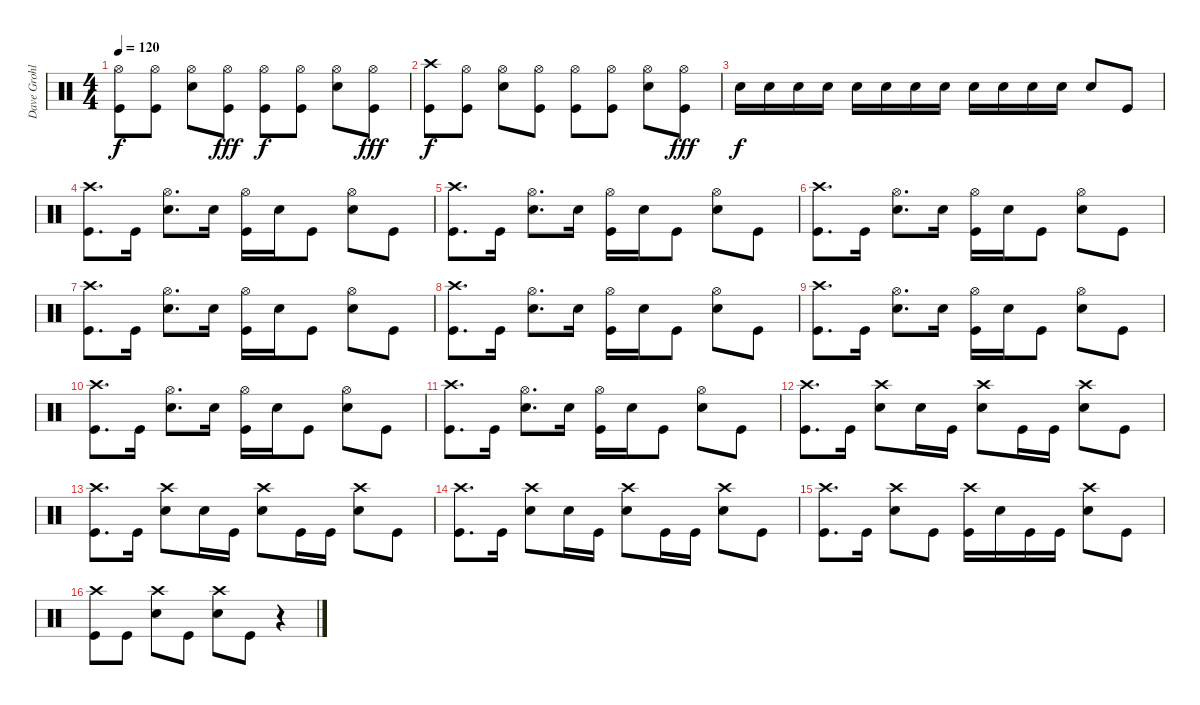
\track ("Dave Grohl - Drums" "Dave Grohl") {instrument percussion}
\staff {score}
\articulation defaults
\ts (4 4)
\tempo 120
\clef neutral
\ks c
("Hi-Hat (open)" "Kick (hit)").8{dy f} ("Hi-Hat (open)" "Kick (hit)").8 ("Hi-Hat (open)" "Snare (hit) 2").8 ("Hi-Hat (open)" "Kick (hit)").8{dy fff} ("Hi-Hat (open)" "Kick (hit)").8{dy f} ("Hi-Hat (open)" "Kick (hit)").8 ("Hi-Hat (open)" "Snare (hit) 2").8 ("Hi-Hat (open)" "Kick (hit)").8{dy fff} |
("Crash high (hit)" "Kick (hit)").8{dy f} ("Hi-Hat (open)" "Kick (hit)").8 ("Hi-Hat (open)" "Snare (hit) 2").8 ("Hi-Hat (open)" "Kick (hit)").8 ("Hi-Hat (open)" "Kick (hit)").8 ("Hi-Hat (open)" "Kick (hit)").8 ("Hi-Hat (open)" "Snare (hit) 2").8 ("Hi-Hat (open)" "Kick (hit)").8{dy fff} |
"Snare (hit) 2".16{dy f} "Snare (hit) 2".16 "Snare (hit) 2".16 "Snare (hit) 2".16 "Snare (hit) 2".16 "Snare (hit) 2".16 "Snare (hit) 2".16 "Snare (hit) 2".16 "Snare (hit) 2".16 "Snare (hit) 2".16 "Snare (hit) 2".16 "Snare (hit) 2".16 "Snare (hit) 2".8 "Kick (hit)".8 |
("Crash high (hit)" "Kick (hit)").8{d} "Kick (hit)".16 ("Hi-Hat (open)" "Snare (hit) 2").8{d} "Snare (hit) 2".16 ("Hi-Hat (open)" "Kick (hit)").16 "Snare (hit) 2".16 "Kick (hit)".8 ("Hi-Hat (open)" "Snare (hit) 2").8 "Kick (hit)".8 |
("Crash high (hit)" "Kick (hit)").8{d} "Kick (hit)".16 ("Hi-Hat (open)" "Snare (hit) 2").8{d} "Snare (hit) 2".16 ("Hi-Hat (open)" "Kick (hit)").16 "Snare (hit) 2".16 "Kick (hit)".8 ("Hi-Hat (open)" "Snare (hit) 2").8 "Kick (hit)".8 |
("Crash high (hit)" "Kick (hit)").8{d} "Kick (hit)".16 ("Hi-Hat (open)" "Snare (hit) 2").8{d} "Snare (hit) 2".16 ("Hi-Hat (open)" "Kick (hit)").16 "Snare (hit) 2".16 "Kick (hit)".8 ("Hi-Hat (open)" "Snare (hit) 2").8 "Kick (hit)".8 |
("Crash high (hit)" "Kick (hit)").8{d} "Kick (hit)".16 ("Hi-Hat (open)" "Snare (hit) 2").8{d} "Snare (hit) 2".16 ("Hi-Hat (open)" "Kick (hit)").16 "Snare (hit) 2".16 "Kick (hit)".8 ("Hi-Hat (open)" "Snare (hit) 2").8 "Kick (hit)".8 |
("Crash high (hit)" "Kick (hit)").8{d} "Kick (hit)".16 ("Hi-Hat (open)" "Snare (hit) 2").8{d} "Snare (hit) 2".16 ("Hi-Hat (open)" "Kick (hit)").16 "Snare (hit) 2".16 "Kick (hit)".8 ("Hi-Hat (open)" "Snare (hit) 2").8 "Kick (hit)".8 |
("Crash high (hit)" "Kick (hit)").8{d} "Kick (hit)".16 ("Hi-Hat (open)" "Snare (hit) 2").8{d} "Snare (hit) 2".16 ("Hi-Hat (open)" "Kick (hit)").16 "Snare (hit) 2".16 "Kick (hit)".8 ("Hi-Hat (open)" "Snare (hit) 2").8 "Kick (hit)".8 |
("Crash high (hit)" "Kick (hit)").8{d} "Kick (hit)".16 ("Hi-Hat (open)" "Snare (hit) 2").8{d} "Snare (hit) 2".16 ("Hi-Hat (open)" "Kick (hit)").16 "Snare (hit) 2".16 "Kick (hit)".8 ("Hi-Hat (open)" "Snare (hit) 2").8 "Kick (hit)".8 |
("Crash high (hit)" "Kick (hit)").8{d} "Kick (hit)".16 ("Hi-Hat (open)" "Snare (hit) 2").8{d} "Snare (hit) 2".16 ("Hi-Hat (open)" "Kick (hit)").16 "Snare (hit) 2".16 "Kick (hit)".8 ("Hi-Hat (open)" "Snare (hit) 2").8 "Kick (hit)".8 |
("Crash high (hit)" "Kick (hit)").8{d} "Kick (hit)".16 ("Crash high (hit)" "Snare (hit) 2").8 "Snare (hit) 2".16 "Kick (hit)".16 ("Crash high (hit)" "Snare (hit) 2").8 "Kick (hit)".16 "Kick (hit)".16 ("Crash high (hit)" "Snare (hit) 2").8 "Kick (hit)".8 |
("Crash high (hit)" "Kick (hit)").8{d} "Kick (hit)".16 ("Crash high (hit)" "Snare (hit) 2").8 "Snare (hit) 2".16 "Kick (hit)".16 ("Crash high (hit)" "Snare (hit) 2").8 "Kick (hit)".16 "Kick (hit)".16 ("Crash high (hit)" "Snare (hit) 2").8 "Kick (hit)".8 |
("Crash high (hit)" "Kick (hit)").8{d} "Kick (hit)".16 ("Crash high (hit)" "Snare (hit) 2").8 "Snare (hit) 2".16 "Kick (hit)".16 ("Crash high (hit)" "Snare (hit) 2").8 "Kick (hit)".16 "Kick (hit)".16 ("Crash high (hit)" "Snare (hit) 2").8 "Kick (hit)".8 |
("Crash high (hit)" "Kick (hit)").8{d} "Kick (hit)".16 ("Crash high (hit)" "Snare (hit) 2").8 "Kick (hit)".8 ("Crash high (hit)" "Kick (hit)").16 "Snare (hit) 2".16 "Kick (hit)".16 "Kick (hit)".16 ("Crash high (hit)" "Snare (hit) 2").8 "Kick (hit)".8 |
("Crash high (hit)" "Kick (hit)").8 "Kick (hit)".8 ("Crash high (hit)" "Snare (hit) 2").8 "Kick (hit)".8 ("Crash high (hit)" "Snare (hit) 2").8 "Kick (hit)".8 r.4
